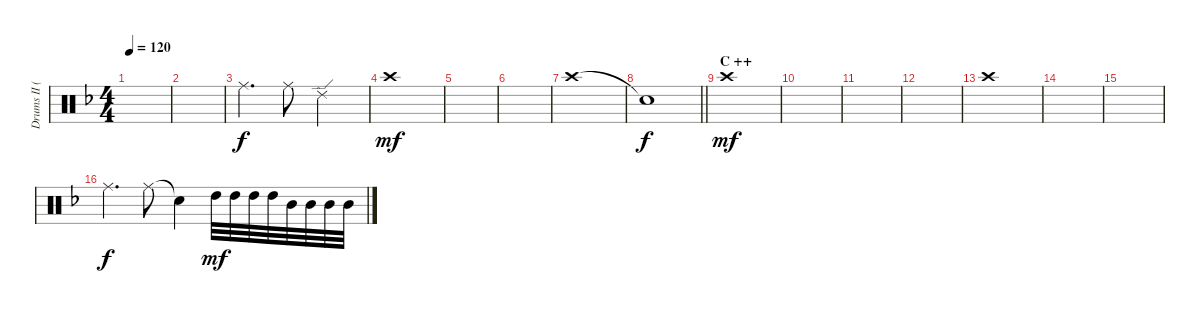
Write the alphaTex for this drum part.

\track ("Drums II (Tainaka Ritsu)" "Drums II (") {instrument percussion}
\staff {score}
\articulation defaults
\ts (4 4)
\tempo 120
\clef neutral
\ks f
|
|
"Ride (middle)".4{d dy f} "Ride (middle)".8 "Ride (edge) 2".2 |
"Crash high (hit)".1{dy mf} |
|
|
"Crash high (hit)".1 |
\barLineRight lightlight "Snare (hit)"{t}.1{dy f}
|
\section ("" "C ++")
"Crash high (hit)".1{dy mf} |
|
|
|
"Crash high (hit)".1 |
|
|
"Ride (middle)".4{d dy f} "Ride (middle)".8 "Snare (hit)"{t}.4 "High Tom (hit)".32{dy mf} "High Tom (hit)".32 "High Tom (hit)".32 "High Tom (hit)".32 "Mid Tom (hit)".32 "Mid Tom (hit)".32 "Mid Tom (hit)".32 "Mid Tom (hit)".32
